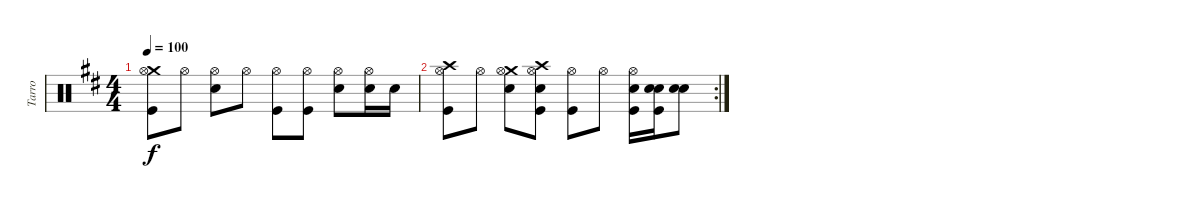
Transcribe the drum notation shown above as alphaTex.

\track ("Tarro" "Tarro") {instrument percussion}
\staff {score}
\articulation defaults
\ts (4 4)
\tempo 100
\clef neutral
\ks d
("Crash medium (hit)" "Hi-Hat (open)" "Kick (hit)").8{dy f} "Hi-Hat (open)".8 ("Hi-Hat (open)" "Snare (hit) 2").8 "Hi-Hat (open)".8 ("Hi-Hat (open)" "Kick (hit)").8 ("Hi-Hat (open)" "Kick (hit)").8 ("Hi-Hat (open)" "Snare (hit) 2").8 ("Hi-Hat (open)" "Snare (hit) 2").16 "Snare (hit) 2".16 |
\rc 2
("Crash high (hit)" "Hi-Hat (open)" "Kick (hit)").8 "Hi-Hat (open)".8 ("Crash medium (hit)" "Hi-Hat (open)" "Snare (hit) 2").8 ("Crash high (hit)" "Hi-Hat (open)" "Snare (hit) 2" "Kick (hit)").8 ("Hi-Hat (open)" "Kick (hit)").8 "Hi-Hat (open)".8 ("Hi-Hat (open)" "Snare (hit) 2" "Kick (hit)").16 ("Snare (hit) 2" "Snare (hit) 2" "Kick (hit)").16 ("Snare (hit) 2" "Snare (hit) 2").8
